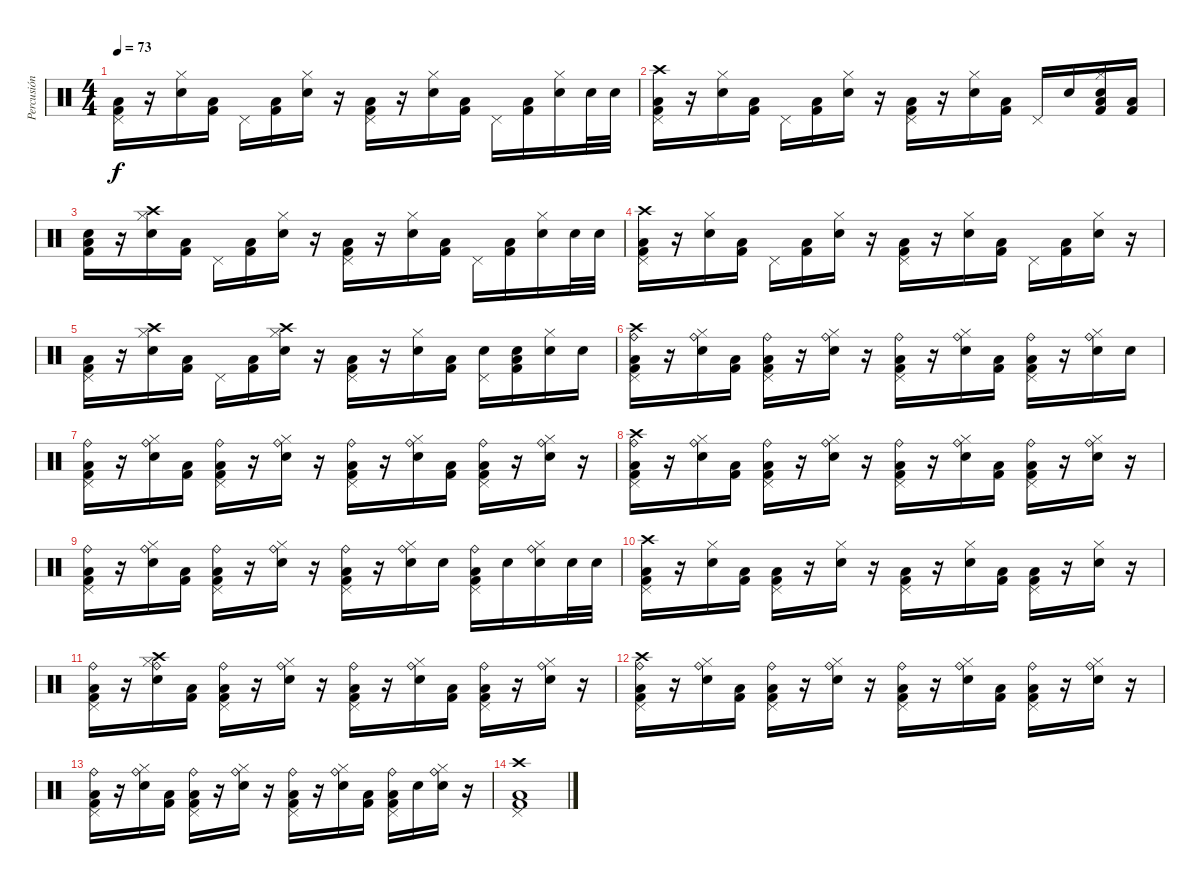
\track ("Percusión" "Percusión") {instrument percussion}
\staff {score}
\articulation defaults
\ts (4 4)
\tempo 73
\clef neutral
\ks c
("Pedal Hi-Hat (hit)" "Low Floor Tom (hit)" "Kick (hit) 2").16{dy f} r.16 ("Hi-Hat (closed)" "Snare (hit) 2").16 ("Low Floor Tom (hit)" "Kick (hit) 2").16 "Pedal Hi-Hat (hit)".16 ("Low Floor Tom (hit)" "Kick (hit) 2").16 ("Hi-Hat (closed)" "Snare (hit) 2").16 r.16 ("Pedal Hi-Hat (hit)" "Low Floor Tom (hit)" "Kick (hit) 2").16 r.16 ("Hi-Hat (closed)" "Snare (hit) 2").16 ("Low Floor Tom (hit)" "Kick (hit) 2").16 "Pedal Hi-Hat (hit)".16 ("Low Floor Tom (hit)" "Kick (hit) 2").16 ("Hi-Hat (closed)" "Snare (hit) 2").16 "Snare (hit) 2".32 "Snare (hit) 2".32 |
("Pedal Hi-Hat (hit)" "Low Floor Tom (hit)" "Kick (hit) 2" "Crash high (hit)").16 r.16 ("Hi-Hat (closed)" "Snare (hit) 2").16 ("Low Floor Tom (hit)" "Kick (hit) 2").16 "Pedal Hi-Hat (hit)".16 ("Low Floor Tom (hit)" "Kick (hit) 2").16 ("Hi-Hat (closed)" "Snare (hit) 2").16 r.16 ("Pedal Hi-Hat (hit)" "Low Floor Tom (hit)" "Kick (hit) 2").16 r.16 ("Hi-Hat (closed)" "Snare (hit) 2").16 ("Low Floor Tom (hit)" "Kick (hit) 2").16 "Pedal Hi-Hat (hit)".16 "Snare (hit) 2".16 ("Hi-Hat (closed)" "Low Floor Tom (hit)" "Kick (hit) 2" "Snare (hit) 2").16 ("Low Floor Tom (hit)" "Kick (hit) 2").16 |
("Low Floor Tom (hit)" "Kick (hit) 2" "Snare (hit) 2").16 r.16 ("Hi-Hat (closed)" "Snare (hit) 2" "Crash high (hit)").16 ("Low Floor Tom (hit)" "Kick (hit) 2").16 "Pedal Hi-Hat (hit)".16 ("Low Floor Tom (hit)" "Kick (hit) 2").16 ("Hi-Hat (closed)" "Snare (hit) 2").16 r.16 ("Pedal Hi-Hat (hit)" "Low Floor Tom (hit)" "Kick (hit) 2").16 r.16 ("Hi-Hat (closed)" "Snare (hit) 2").16 ("Low Floor Tom (hit)" "Kick (hit) 2").16 "Pedal Hi-Hat (hit)".16 ("Low Floor Tom (hit)" "Kick (hit) 2").16 ("Hi-Hat (closed)" "Snare (hit) 2").16 "Snare (hit) 2".32 "Snare (hit) 2".32 |
("Pedal Hi-Hat (hit)" "Low Floor Tom (hit)" "Kick (hit) 2" "Crash high (hit)").16 r.16 ("Hi-Hat (closed)" "Snare (hit) 2").16 ("Low Floor Tom (hit)" "Kick (hit) 2").16 "Pedal Hi-Hat (hit)".16 ("Low Floor Tom (hit)" "Kick (hit) 2").16 ("Hi-Hat (closed)" "Snare (hit) 2").16 r.16 ("Pedal Hi-Hat (hit)" "Low Floor Tom (hit)" "Kick (hit) 2").16 r.16 ("Hi-Hat (closed)" "Snare (hit) 2").16 ("Low Floor Tom (hit)" "Kick (hit) 2").16 "Pedal Hi-Hat (hit)".16 ("Low Floor Tom (hit)" "Kick (hit) 2").16 ("Hi-Hat (closed)" "Snare (hit) 2").16 r.16 |
("Pedal Hi-Hat (hit)" "Low Floor Tom (hit)" "Kick (hit) 2").16 r.16 ("Hi-Hat (closed)" "Snare (hit) 2" "Crash high (hit)").16 ("Low Floor Tom (hit)" "Kick (hit) 2").16 "Pedal Hi-Hat (hit)".16 ("Low Floor Tom (hit)" "Kick (hit) 2").16 ("Hi-Hat (closed)" "Snare (hit) 2" "Crash high (hit)").16 r.16 ("Pedal Hi-Hat (hit)" "Low Floor Tom (hit)" "Kick (hit) 2").16 r.16 ("Hi-Hat (closed)" "Snare (hit) 2").16 ("Low Floor Tom (hit)" "Kick (hit) 2").16 ("Pedal Hi-Hat (hit)" "Snare (hit) 2").16 ("Low Floor Tom (hit)" "Kick (hit) 2" "Snare (hit) 2").16 ("Hi-Hat (closed)" "Snare (hit) 2").16 "Snare (hit) 2".16 |
("Pedal Hi-Hat (hit)" "Ride (bell)" "Low Floor Tom (hit)" "Kick (hit) 2" "Crash high (hit)").16 r.16 ("Ride (bell)" "Hi-Hat (closed)" "Snare (hit) 2").16 ("Low Floor Tom (hit)" "Kick (hit) 2").16 ("Pedal Hi-Hat (hit)" "Ride (bell)" "Low Floor Tom (hit)" "Kick (hit) 2").16 r.16 ("Ride (bell)" "Hi-Hat (closed)" "Snare (hit) 2").16 r.16 ("Pedal Hi-Hat (hit)" "Ride (bell)" "Low Floor Tom (hit)" "Kick (hit) 2").16 r.16 ("Ride (bell)" "Hi-Hat (closed)" "Snare (hit) 2").16 ("Low Floor Tom (hit)" "Kick (hit) 2").16 ("Pedal Hi-Hat (hit)" "Ride (bell)" "Low Floor Tom (hit)" "Kick (hit) 2").16 r.16 ("Ride (bell)" "Hi-Hat (closed)" "Snare (hit) 2").16 "Snare (hit) 2".16 |
("Pedal Hi-Hat (hit)" "Ride (bell)" "Low Floor Tom (hit)" "Kick (hit) 2").16 r.16 ("Ride (bell)" "Hi-Hat (closed)" "Snare (hit) 2").16 ("Low Floor Tom (hit)" "Kick (hit) 2").16 ("Pedal Hi-Hat (hit)" "Ride (bell)" "Low Floor Tom (hit)" "Kick (hit) 2").16 r.16 ("Ride (bell)" "Hi-Hat (closed)" "Snare (hit) 2").16 r.16 ("Pedal Hi-Hat (hit)" "Ride (bell)" "Low Floor Tom (hit)" "Kick (hit) 2").16 r.16 ("Ride (bell)" "Hi-Hat (closed)" "Snare (hit) 2").16 ("Low Floor Tom (hit)" "Kick (hit) 2").16 ("Pedal Hi-Hat (hit)" "Ride (bell)" "Low Floor Tom (hit)" "Kick (hit) 2").16 r.16 ("Ride (bell)" "Hi-Hat (closed)" "Snare (hit) 2").16 r.16 |
("Pedal Hi-Hat (hit)" "Ride (bell)" "Low Floor Tom (hit)" "Kick (hit) 2" "Crash high (hit)").16 r.16 ("Ride (bell)" "Hi-Hat (closed)" "Snare (hit) 2").16 ("Low Floor Tom (hit)" "Kick (hit) 2").16 ("Pedal Hi-Hat (hit)" "Ride (bell)" "Low Floor Tom (hit)" "Kick (hit) 2").16 r.16 ("Ride (bell)" "Hi-Hat (closed)" "Snare (hit) 2").16 r.16 ("Pedal Hi-Hat (hit)" "Ride (bell)" "Low Floor Tom (hit)" "Kick (hit) 2").16 r.16 ("Ride (bell)" "Hi-Hat (closed)" "Snare (hit) 2").16 ("Low Floor Tom (hit)" "Kick (hit) 2").16 ("Pedal Hi-Hat (hit)" "Ride (bell)" "Low Floor Tom (hit)" "Kick (hit) 2").16 r.16 ("Ride (bell)" "Hi-Hat (closed)" "Snare (hit) 2").16 r.16 |
("Pedal Hi-Hat (hit)" "Ride (bell)" "Low Floor Tom (hit)" "Kick (hit) 2").16 r.16 ("Ride (bell)" "Hi-Hat (closed)" "Snare (hit) 2").16 ("Low Floor Tom (hit)" "Kick (hit) 2").16 ("Pedal Hi-Hat (hit)" "Ride (bell)" "Low Floor Tom (hit)" "Kick (hit) 2").16 r.16 ("Ride (bell)" "Hi-Hat (closed)" "Snare (hit) 2").16 r.16 ("Pedal Hi-Hat (hit)" "Ride (bell)" "Low Floor Tom (hit)" "Kick (hit) 2").16 r.16 ("Ride (bell)" "Hi-Hat (closed)" "Snare (hit) 2").16 "Snare (hit) 2".16 ("Pedal Hi-Hat (hit)" "Ride (bell)" "Low Floor Tom (hit)" "Kick (hit) 2").16 "Snare (hit) 2".16 ("Ride (bell)" "Hi-Hat (closed)" "Snare (hit) 2").16 "Snare (hit) 2".32 "Snare (hit) 2".32 |
("Pedal Hi-Hat (hit)" "Low Floor Tom (hit)" "Kick (hit) 2" "Crash high (hit)").16 r.16 ("Hi-Hat (closed)" "Snare (hit) 2").16 ("Low Floor Tom (hit)" "Kick (hit) 2").16 ("Pedal Hi-Hat (hit)" "Low Floor Tom (hit)" "Kick (hit) 2").16 r.16 ("Hi-Hat (closed)" "Snare (hit) 2").16 r.16 ("Pedal Hi-Hat (hit)" "Low Floor Tom (hit)" "Kick (hit) 2").16 r.16 ("Hi-Hat (closed)" "Snare (hit) 2").16 ("Low Floor Tom (hit)" "Kick (hit) 2").16 ("Pedal Hi-Hat (hit)" "Low Floor Tom (hit)" "Kick (hit) 2").16 r.16 ("Hi-Hat (closed)" "Snare (hit) 2").16 r.16 |
("Pedal Hi-Hat (hit)" "Ride (bell)" "Low Floor Tom (hit)" "Kick (hit) 2").16 r.16 ("Ride (bell)" "Hi-Hat (closed)" "Snare (hit) 2" "Crash high (hit)").16 ("Low Floor Tom (hit)" "Kick (hit) 2").16 ("Pedal Hi-Hat (hit)" "Ride (bell)" "Low Floor Tom (hit)" "Kick (hit) 2").16 r.16 ("Ride (bell)" "Hi-Hat (closed)" "Snare (hit) 2").16 r.16 ("Pedal Hi-Hat (hit)" "Ride (bell)" "Low Floor Tom (hit)" "Kick (hit) 2").16 r.16 ("Ride (bell)" "Hi-Hat (closed)" "Snare (hit) 2").16 ("Low Floor Tom (hit)" "Kick (hit) 2").16 ("Pedal Hi-Hat (hit)" "Ride (bell)" "Low Floor Tom (hit)" "Kick (hit) 2").16 r.16 ("Ride (bell)" "Hi-Hat (closed)" "Snare (hit) 2").16 r.16 |
("Pedal Hi-Hat (hit)" "Ride (bell)" "Low Floor Tom (hit)" "Kick (hit) 2" "Crash high (hit)").16 r.16 ("Ride (bell)" "Hi-Hat (closed)" "Snare (hit) 2").16 ("Low Floor Tom (hit)" "Kick (hit) 2").16 ("Pedal Hi-Hat (hit)" "Ride (bell)" "Low Floor Tom (hit)" "Kick (hit) 2").16 r.16 ("Ride (bell)" "Hi-Hat (closed)" "Snare (hit) 2").16 r.16 ("Pedal Hi-Hat (hit)" "Ride (bell)" "Low Floor Tom (hit)" "Kick (hit) 2").16 r.16 ("Ride (bell)" "Hi-Hat (closed)" "Snare (hit) 2").16 ("Low Floor Tom (hit)" "Kick (hit) 2").16 ("Pedal Hi-Hat (hit)" "Ride (bell)" "Low Floor Tom (hit)" "Kick (hit) 2").16 r.16 ("Ride (bell)" "Hi-Hat (closed)" "Snare (hit) 2").16 r.16 |
("Pedal Hi-Hat (hit)" "Ride (bell)" "Low Floor Tom (hit)" "Kick (hit) 2").16 r.16 ("Ride (bell)" "Hi-Hat (closed)" "Snare (hit) 2").16 ("Low Floor Tom (hit)" "Kick (hit) 2").16 ("Pedal Hi-Hat (hit)" "Ride (bell)" "Low Floor Tom (hit)" "Kick (hit) 2").16 r.16 ("Ride (bell)" "Hi-Hat (closed)" "Snare (hit) 2").16 r.16 ("Pedal Hi-Hat (hit)" "Ride (bell)" "Low Floor Tom (hit)" "Kick (hit) 2").16 r.16 ("Ride (bell)" "Hi-Hat (closed)" "Snare (hit) 2").16 ("Low Floor Tom (hit)" "Kick (hit) 2").16 ("Pedal Hi-Hat (hit)" "Ride (bell)" "Low Floor Tom (hit)" "Kick (hit) 2").16 "Snare (hit) 2".16 ("Ride (bell)" "Hi-Hat (closed)" "Snare (hit) 2").16 r.16 |
("Pedal Hi-Hat (hit)" "Low Floor Tom (hit)" "Kick (hit) 2" "Crash high (hit)").1
